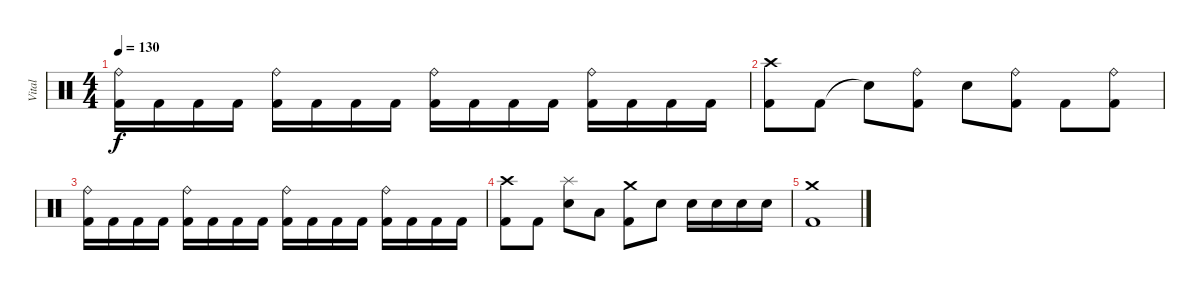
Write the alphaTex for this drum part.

\track ("Vital" "Vital") {instrument percussion}
\staff {score}
\articulation defaults
\ts (4 4)
\tempo 130
\clef neutral
\ks c
("Kick (hit) 2" "Ride (bell)").16{dy f} "Kick (hit) 2".16 "Kick (hit) 2".16 "Kick (hit) 2".16 ("Kick (hit) 2" "Ride (bell)").16 "Kick (hit) 2".16 "Kick (hit) 2".16 "Kick (hit) 2".16 ("Kick (hit) 2" "Ride (bell)").16 "Kick (hit) 2".16 "Kick (hit) 2".16 "Kick (hit) 2".16 ("Kick (hit) 2" "Ride (bell)").16 "Kick (hit) 2".16 "Kick (hit) 2".16 "Kick (hit) 2".16 |
("Kick (hit) 2" "Crash high (hit)").8 "Kick (hit) 2".8 "Snare (hit)"{t}.8 ("Kick (hit) 2" "Ride (bell)").8 "Snare (hit) 2".8 ("Kick (hit) 2" "Ride (bell)").8 "Kick (hit) 2".8 ("Kick (hit) 2" "Ride (bell)").8 |
("Kick (hit) 2" "Ride (bell)").16 "Kick (hit) 2".16 "Kick (hit) 2".16 "Kick (hit) 2".16 ("Kick (hit) 2" "Ride (bell)").16 "Kick (hit) 2".16 "Kick (hit) 2".16 "Kick (hit) 2".16 ("Kick (hit) 2" "Ride (bell)").16 "Kick (hit) 2".16 "Kick (hit) 2".16 "Kick (hit) 2".16 ("Kick (hit) 2" "Ride (bell)").16 "Kick (hit) 2".16 "Kick (hit) 2".16 "Kick (hit) 2".16 |
("Kick (hit) 2" "Crash high (hit)").8 "Kick (hit) 2".8 ("Snare (hit) 2" "Splash (hit)").8 "Low Floor Tom (hit)".8 ("Kick (hit) 2" "Crash medium (hit)").8 "Snare (hit) 2".8 "Snare (hit) 2".16 "Snare (hit) 2".16 "Snare (hit) 2".16 "Snare (hit) 2".16 |
("Kick (hit) 2" "Crash medium (hit)").1
